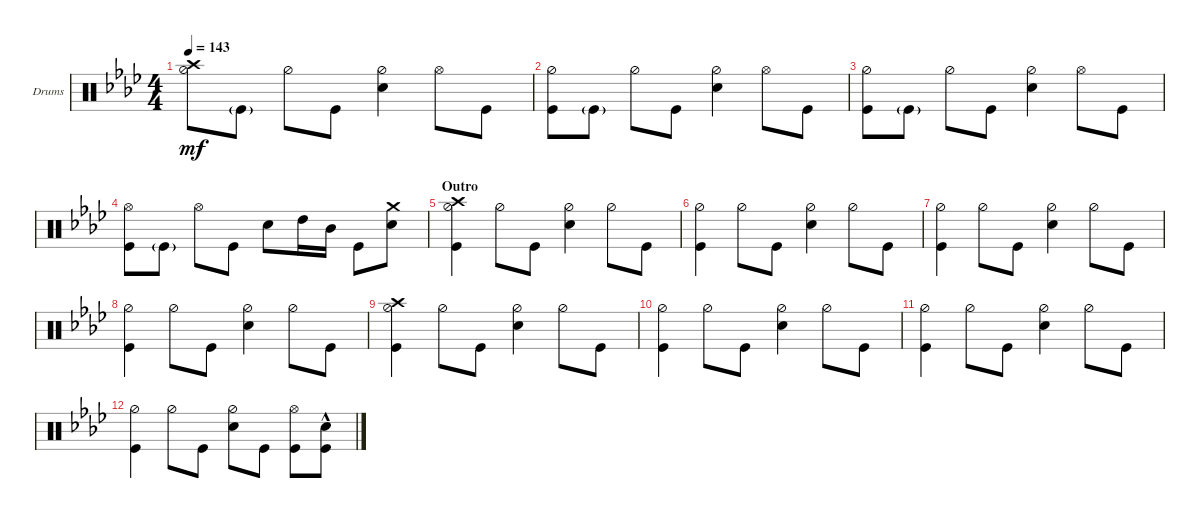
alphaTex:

\defaultSystemsLayout 4
\bracketExtendMode groupsimilarinstruments
\firstSystemTrackNameOrientation horizontal
\otherSystemsTrackNameOrientation horizontal
\track ("Drumkit" "Drums") {instrument percussion}
\staff {score}
\articulation defaults
\ts (4 4)
\tempo 143
\clef neutral
\ks fminor
("Crash high (hit)" "Hi-Hat (half)").8{dy mf} "Kick (hit)"{g}.8 "Hi-Hat (half)".8 "Kick (hit)".8 ("Snare (hit) 2" "Hi-Hat (half)").4 "Hi-Hat (open)".8 "Kick (hit)".8 |
("Kick (hit)" "Hi-Hat (half)").8 "Kick (hit)"{g}.8 "Hi-Hat (half)".8 "Kick (hit)".8 ("Snare (hit) 2" "Hi-Hat (half)").4 "Hi-Hat (open)".8 "Kick (hit)".8 |
("Kick (hit)" "Hi-Hat (half)").8 "Kick (hit)"{g}.8 "Hi-Hat (half)".8 "Kick (hit)".8 ("Snare (hit) 2" "Hi-Hat (half)").4 "Hi-Hat (open)".8 "Kick (hit)".8 |
("Kick (hit)" "Hi-Hat (open)").8 "Kick (hit)"{g}.8 "Hi-Hat (open)".8 "Kick (hit)".8 "Snare (hit) 2".8 "High Tom (hit)".16 "Mid Tom (hit)".16 "Kick (hit)".8 ("Snare (hit) 2" "Crash medium (hit)").8 |
\section ("" "Outro")
("Kick (hit)" "Hi-Hat (half)" "Crash high (hit)").4 "Hi-Hat (half)".8 "Kick (hit)".8 ("Snare (hit) 2" "Hi-Hat (half)").4 "Hi-Hat (half)".8 "Kick (hit)".8 |
("Kick (hit)" "Hi-Hat (half)").4 "Hi-Hat (half)".8 "Kick (hit)".8 ("Snare (hit) 2" "Hi-Hat (half)").4 "Hi-Hat (half)".8 "Kick (hit)".8 |
("Kick (hit)" "Hi-Hat (half)").4 "Hi-Hat (half)".8 "Kick (hit)".8 ("Snare (hit) 2" "Hi-Hat (half)").4 "Hi-Hat (half)".8 "Kick (hit)".8 |
("Kick (hit)" "Hi-Hat (half)").4 "Hi-Hat (half)".8 "Kick (hit)".8 ("Snare (hit) 2" "Hi-Hat (half)").4 "Hi-Hat (half)".8 "Kick (hit)".8 |
("Kick (hit)" "Hi-Hat (half)" "Crash high (hit)").4 "Hi-Hat (half)".8 "Kick (hit)".8 ("Snare (hit) 2" "Hi-Hat (half)").4 "Hi-Hat (half)".8 "Kick (hit)".8 |
("Kick (hit)" "Hi-Hat (half)").4 "Hi-Hat (half)".8 "Kick (hit)".8 ("Snare (hit) 2" "Hi-Hat (half)").4 "Hi-Hat (half)".8 "Kick (hit)".8 |
("Kick (hit)" "Hi-Hat (half)").4 "Hi-Hat (half)".8 "Kick (hit)".8 ("Snare (hit) 2" "Hi-Hat (half)").4 "Hi-Hat (half)".8 "Kick (hit)".8 |
("Kick (hit)" "Hi-Hat (half)").4 "Hi-Hat (half)".8 "Kick (hit)".8 ("Snare (hit) 2" "Hi-Hat (half)").8 "Kick (hit)".8 ("Kick (hit)" "Hi-Hat (open)").8 ("Kick (hit)"{hac} "Snare (hit) 2"{hac}).8
